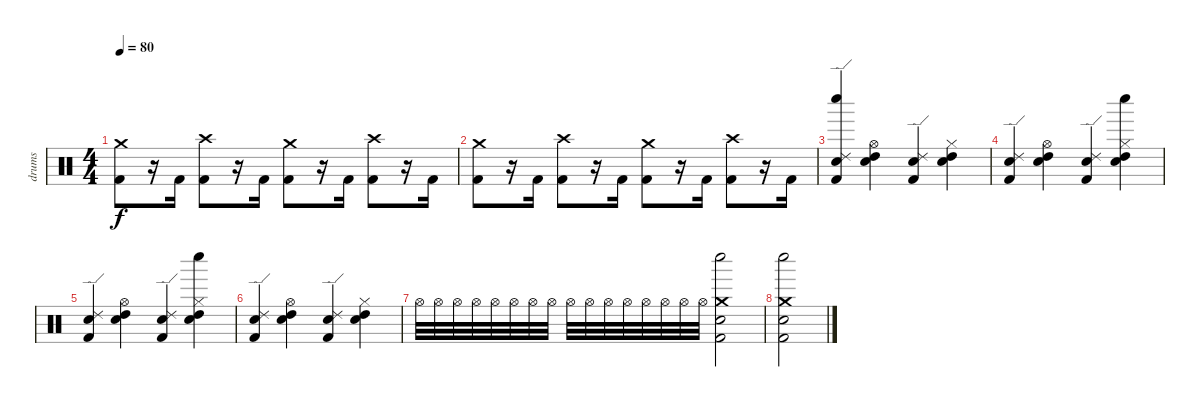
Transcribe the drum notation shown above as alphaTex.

\track ("drums" "drums") {instrument percussion}
\staff {score}
\articulation defaults
\ts (4 4)
\tempo 80
\clef neutral
\ks c
("Crash medium (hit)" "Kick (hit) 2").8{dy f} r.16 "Kick (hit) 2".16 ("Crash high (hit)" "Kick (hit) 2").8 r.16 "Kick (hit) 2".16 ("Crash medium (hit)" "Kick (hit) 2").8 r.16 "Kick (hit) 2".16 ("Crash high (hit)" "Kick (hit) 2").8 r.16 "Kick (hit) 2".16 |
("Crash medium (hit)" "Kick (hit) 2").8 r.16 "Kick (hit) 2".16 ("Crash high (hit)" "Kick (hit) 2").8 r.16 "Kick (hit) 2".16 ("Crash medium (hit)" "Kick (hit) 2").8 r.16 "Kick (hit) 2".16 ("Crash high (hit)" "Kick (hit) 2").8 r.16 "Kick (hit) 2".16 |
("Whistle low (hit)" "Ride (edge) 2" "Snare (hit) 2" "Kick (hit) 2").4 ("Hi-Hat (open)" "High Tom (hit)" "Snare (hit) 2").4 ("Snare (hit) 2" "Ride (edge) 2" "Kick (hit) 2").4 ("Hi-Hat (closed)" "High Tom (hit)" "Snare (hit) 2").4 |
("Ride (edge) 2" "Snare (hit) 2" "Kick (hit) 2").4 ("Hi-Hat (open)" "High Tom (hit)" "Snare (hit) 2").4 ("Snare (hit) 2" "Ride (edge) 2" "Kick (hit) 2").4 ("Whistle low (hit)" "Hi-Hat (closed)" "High Tom (hit)" "Snare (hit) 2").4 |
("Ride (edge) 2" "Snare (hit) 2" "Kick (hit) 2").4 ("Hi-Hat (open)" "High Tom (hit)" "Snare (hit) 2").4 ("Snare (hit) 2" "Ride (edge) 2" "Kick (hit) 2").4 ("Whistle low (hit)" "Hi-Hat (closed)" "High Tom (hit)" "Snare (hit) 2").4 |
("Ride (edge) 2" "Snare (hit) 2" "Kick (hit) 2").4 ("Hi-Hat (open)" "High Tom (hit)" "Snare (hit) 2").4 ("Snare (hit) 2" "Ride (edge) 2" "Kick (hit) 2").4 ("Hi-Hat (closed)" "High Tom (hit)" "Snare (hit) 2").4 |
"Hi-Hat (open)".32 "Hi-Hat (open)".32 "Hi-Hat (open)".32 "Hi-Hat (open)".32 "Hi-Hat (open)".32 "Hi-Hat (open)".32 "Hi-Hat (open)".32 "Hi-Hat (open)".32 "Hi-Hat (open)".32 "Hi-Hat (open)".32 "Hi-Hat (open)".32 "Hi-Hat (open)".32 "Hi-Hat (open)".32 "Hi-Hat (open)".32 "Hi-Hat (open)".32 "Hi-Hat (open)".32 ("Whistle low (hit)" "Crash medium (hit)" "Snare (hit) 2" "Kick (hit) 2").2 |
("Whistle low (hit)" "Crash medium (hit)" "Snare (hit) 2" "Kick (hit) 2").2
